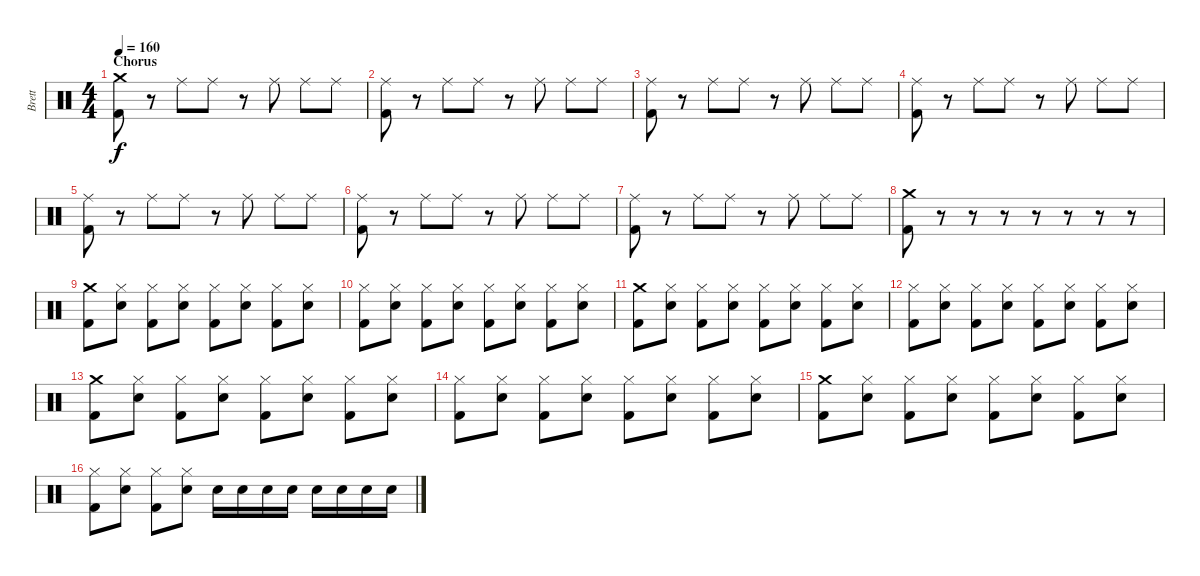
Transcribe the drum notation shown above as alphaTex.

\track ("Brett" "Brett") {instrument percussion}
\staff {score}
\articulation defaults
\ts (4 4)
\section ("" "Chorus")
\tempo 160
\clef neutral
\ks c
("Crash medium (hit)" "Kick (hit) 2").8{dy f} r.8 "Ride (middle)".8 "Ride (middle)".8 r.8 "Ride (middle)".8 "Ride (middle)".8 "Ride (middle)".8 |
("Ride (middle)" "Kick (hit) 2").8 r.8 "Ride (middle)".8 "Ride (middle)".8 r.8 "Ride (middle)".8 "Ride (middle)".8 "Ride (middle)".8 |
("Ride (middle)" "Kick (hit) 2").8 r.8 "Ride (middle)".8 "Ride (middle)".8 r.8 "Ride (middle)".8 "Ride (middle)".8 "Ride (middle)".8 |
("Ride (middle)" "Kick (hit) 2").8 r.8 "Ride (middle)".8 "Ride (middle)".8 r.8 "Ride (middle)".8 "Ride (middle)".8 "Ride (middle)".8 |
("Ride (middle)" "Kick (hit) 2").8 r.8 "Ride (middle)".8 "Ride (middle)".8 r.8 "Ride (middle)".8 "Ride (middle)".8 "Ride (middle)".8 |
("Ride (middle)" "Kick (hit) 2").8 r.8 "Ride (middle)".8 "Ride (middle)".8 r.8 "Ride (middle)".8 "Ride (middle)".8 "Ride (middle)".8 |
("Ride (middle)" "Kick (hit) 2").8 r.8 "Ride (middle)".8 "Ride (middle)".8 r.8 "Ride (middle)".8 "Ride (middle)".8 "Ride (middle)".8 |
("Crash medium (hit)" "Kick (hit) 2").8 r.8 r.8 r.8 r.8 r.8 r.8 r.8 |
\section ("" "")
("Crash medium (hit)" "Kick (hit) 2").8 ("Hi-Hat (closed)" "Snare (hit) 2").8 ("Hi-Hat (closed)" "Kick (hit) 2").8 ("Hi-Hat (closed)" "Snare (hit) 2").8 ("Hi-Hat (closed)" "Kick (hit) 2").8 ("Hi-Hat (closed)" "Snare (hit) 2").8 ("Hi-Hat (closed)" "Kick (hit) 2").8 ("Hi-Hat (closed)" "Snare (hit) 2").8 |
("Hi-Hat (closed)" "Kick (hit) 2").8 ("Hi-Hat (closed)" "Snare (hit) 2").8 ("Hi-Hat (closed)" "Kick (hit) 2").8 ("Hi-Hat (closed)" "Snare (hit) 2").8 ("Hi-Hat (closed)" "Kick (hit) 2").8 ("Hi-Hat (closed)" "Snare (hit) 2").8 ("Hi-Hat (closed)" "Kick (hit) 2").8 ("Hi-Hat (closed)" "Snare (hit) 2").8 |
("Crash medium (hit)" "Kick (hit) 2").8 ("Hi-Hat (closed)" "Snare (hit) 2").8 ("Hi-Hat (closed)" "Kick (hit) 2").8 ("Hi-Hat (closed)" "Snare (hit) 2").8 ("Hi-Hat (closed)" "Kick (hit) 2").8 ("Hi-Hat (closed)" "Snare (hit) 2").8 ("Hi-Hat (closed)" "Kick (hit) 2").8 ("Hi-Hat (closed)" "Snare (hit) 2").8 |
("Hi-Hat (closed)" "Kick (hit) 2").8 ("Hi-Hat (closed)" "Snare (hit) 2").8 ("Hi-Hat (closed)" "Kick (hit) 2").8 ("Hi-Hat (closed)" "Snare (hit) 2").8 ("Hi-Hat (closed)" "Kick (hit) 2").8 ("Hi-Hat (closed)" "Snare (hit) 2").8 ("Hi-Hat (closed)" "Kick (hit) 2").8 ("Hi-Hat (closed)" "Snare (hit) 2").8 |
("Crash medium (hit)" "Kick (hit) 2").8 ("Hi-Hat (closed)" "Snare (hit) 2").8 ("Hi-Hat (closed)" "Kick (hit) 2").8 ("Hi-Hat (closed)" "Snare (hit) 2").8 ("Hi-Hat (closed)" "Kick (hit) 2").8 ("Hi-Hat (closed)" "Snare (hit) 2").8 ("Hi-Hat (closed)" "Kick (hit) 2").8 ("Hi-Hat (closed)" "Snare (hit) 2").8 |
("Hi-Hat (closed)" "Kick (hit) 2").8 ("Hi-Hat (closed)" "Snare (hit) 2").8 ("Hi-Hat (closed)" "Kick (hit) 2").8 ("Hi-Hat (closed)" "Snare (hit) 2").8 ("Hi-Hat (closed)" "Kick (hit) 2").8 ("Hi-Hat (closed)" "Snare (hit) 2").8 ("Hi-Hat (closed)" "Kick (hit) 2").8 ("Hi-Hat (closed)" "Snare (hit) 2").8 |
("Crash medium (hit)" "Kick (hit) 2").8 ("Hi-Hat (closed)" "Snare (hit) 2").8 ("Hi-Hat (closed)" "Kick (hit) 2").8 ("Hi-Hat (closed)" "Snare (hit) 2").8 ("Hi-Hat (closed)" "Kick (hit) 2").8 ("Hi-Hat (closed)" "Snare (hit) 2").8 ("Hi-Hat (closed)" "Kick (hit) 2").8 ("Hi-Hat (closed)" "Snare (hit) 2").8 |
("Hi-Hat (closed)" "Kick (hit) 2").8 ("Hi-Hat (closed)" "Snare (hit) 2").8 ("Hi-Hat (closed)" "Kick (hit) 2").8 ("Hi-Hat (closed)" "Snare (hit) 2").8 "Snare (hit) 2".16 "Snare (hit) 2".16 "Snare (hit) 2".16 "Snare (hit) 2".16 "Snare (hit) 2".16 "Snare (hit) 2".16 "Snare (hit) 2".16 "Snare (hit) 2".16
